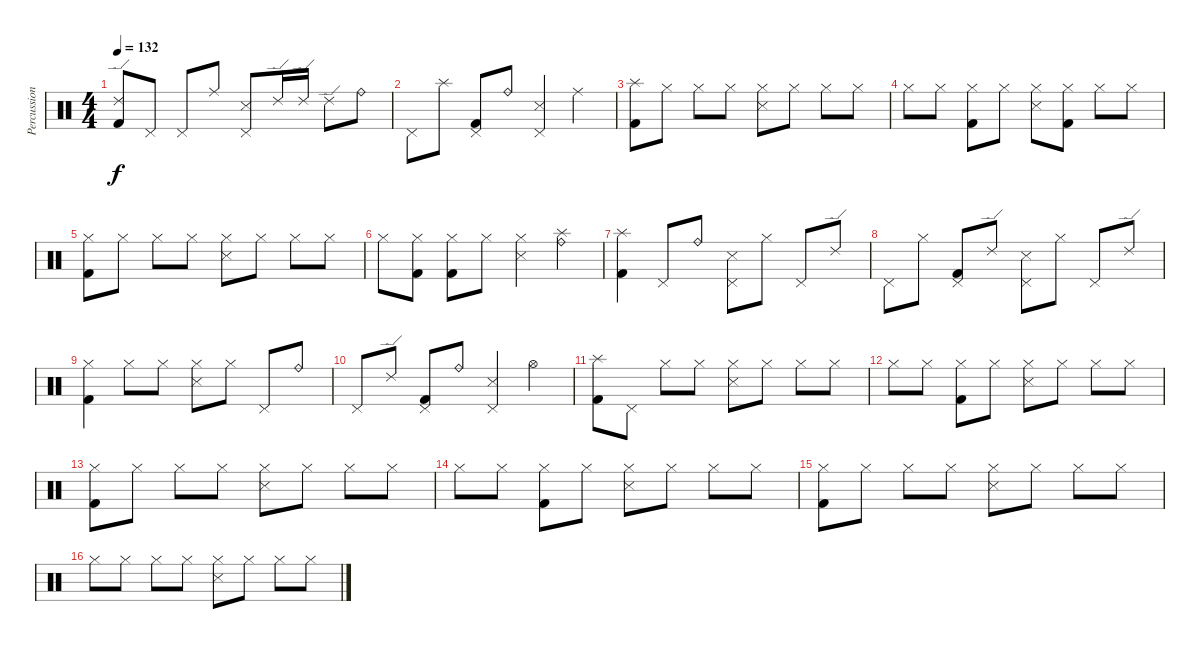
\track ("Percussion" "Percussion") {instrument percussion}
\staff {score}
\articulation defaults
\ts (4 4)
\tempo 132
\clef neutral
\ks c
("Ride (edge) 2" "Kick (hit) 2").8{dy f} "Pedal Hi-Hat (hit)".8 "Pedal Hi-Hat (hit)".8 "Ride (middle)".8 ("Pedal Hi-Hat (hit)" "Snare (side stick) 3").8 "Ride (edge) 2".16 "Ride (edge) 2".16 "Ride (edge) 2".8 "Ride (bell)".8 |
"Pedal Hi-Hat (hit)".8 "Splash (hit)".8 ("Pedal Hi-Hat (hit)" "Kick (hit) 2").8 "Ride (bell)".8 ("Pedal Hi-Hat (hit)" "Snare (side stick) 3").4 "Ride (middle)".4 |
("Splash (hit)" "Kick (hit) 2").8 "Hi-Hat (closed)".8 "Hi-Hat (closed)".8 "Hi-Hat (closed)".8 ("Hi-Hat (closed)" "Snare (side stick) 3").8 "Hi-Hat (closed)".8 "Hi-Hat (closed)".8 "Hi-Hat (closed)".8 |
"Hi-Hat (closed)".8 "Hi-Hat (closed)".8 ("Hi-Hat (closed)" "Kick (hit) 2").8 "Hi-Hat (closed)".8 ("Hi-Hat (closed)" "Snare (side stick) 3").8 ("Hi-Hat (closed)" "Kick (hit) 2").8 "Hi-Hat (closed)".8 "Hi-Hat (closed)".8 |
("Hi-Hat (closed)" "Kick (hit) 2").8 "Hi-Hat (closed)".8 "Hi-Hat (closed)".8 "Hi-Hat (closed)".8 ("Hi-Hat (closed)" "Snare (side stick) 3").8 "Hi-Hat (closed)".8 "Hi-Hat (closed)".8 "Hi-Hat (closed)".8 |
"Hi-Hat (closed)".8 ("Hi-Hat (closed)" "Kick (hit) 2").8 ("Hi-Hat (closed)" "Kick (hit) 2").8 "Hi-Hat (closed)".8 ("Hi-Hat (closed)" "Snare (side stick) 3").4 ("Ride (bell)" "Splash (hit)").4 |
("Splash (hit)" "Kick (hit) 2").4 "Pedal Hi-Hat (hit)".8 "Ride (bell)".8 ("Pedal Hi-Hat (hit)" "Snare (side stick) 3").8 "Hi-Hat (closed)".8 "Pedal Hi-Hat (hit)".8 "Ride (edge) 2".8 |
"Pedal Hi-Hat (hit)".8 "Hi-Hat (closed)".8 ("Pedal Hi-Hat (hit)" "Kick (hit) 2").8 "Ride (edge) 2".8 ("Pedal Hi-Hat (hit)" "Snare (side stick) 3").8 "Hi-Hat (closed)".8 "Pedal Hi-Hat (hit)".8 "Ride (edge) 2".8 |
("Hi-Hat (closed)" "Kick (hit) 2").4 "Hi-Hat (closed)".8 "Hi-Hat (closed)".8 ("Hi-Hat (closed)" "Snare (side stick) 3").8 "Hi-Hat (closed)".8 "Pedal Hi-Hat (hit)".8 "Ride (bell)".8 |
"Pedal Hi-Hat (hit)".8 "Ride (edge) 2".8 ("Pedal Hi-Hat (hit)" "Kick (hit) 2").8 "Ride (bell)".8 ("Pedal Hi-Hat (hit)" "Snare (side stick) 3").4 "Hi-Hat (open)".4 |
("Splash (hit)" "Kick (hit) 2").8 "Pedal Hi-Hat (hit)".8 "Hi-Hat (closed)".8 "Hi-Hat (closed)".8 ("Hi-Hat (closed)" "Snare (side stick) 3").8 "Hi-Hat (closed)".8 "Hi-Hat (closed)".8 "Hi-Hat (closed)".8 |
"Hi-Hat (closed)".8 "Hi-Hat (closed)".8 ("Hi-Hat (closed)" "Kick (hit) 2").8 "Hi-Hat (closed)".8 ("Hi-Hat (closed)" "Snare (side stick) 3").8 "Hi-Hat (closed)".8 "Hi-Hat (closed)".8 "Hi-Hat (closed)".8 |
("Hi-Hat (closed)" "Kick (hit) 2").8 "Hi-Hat (closed)".8 "Hi-Hat (closed)".8 "Hi-Hat (closed)".8 ("Hi-Hat (closed)" "Snare (side stick) 3").8 "Hi-Hat (closed)".8 "Hi-Hat (closed)".8 "Hi-Hat (closed)".8 |
"Hi-Hat (closed)".8 "Hi-Hat (closed)".8 ("Hi-Hat (closed)" "Kick (hit) 2").8 "Hi-Hat (closed)".8 ("Hi-Hat (closed)" "Snare (side stick) 3").8 "Hi-Hat (closed)".8 "Hi-Hat (closed)".8 "Hi-Hat (closed)".8 |
("Hi-Hat (closed)" "Kick (hit) 2").8 "Hi-Hat (closed)".8 "Hi-Hat (closed)".8 "Hi-Hat (closed)".8 ("Hi-Hat (closed)" "Snare (side stick) 3").8 "Hi-Hat (closed)".8 "Hi-Hat (closed)".8 "Hi-Hat (closed)".8 |
"Hi-Hat (closed)".8 "Hi-Hat (closed)".8 "Hi-Hat (closed)".8 "Hi-Hat (closed)".8 ("Hi-Hat (closed)" "Snare (side stick) 3").8 "Hi-Hat (closed)".8 "Hi-Hat (closed)".8 "Hi-Hat (closed)".8
